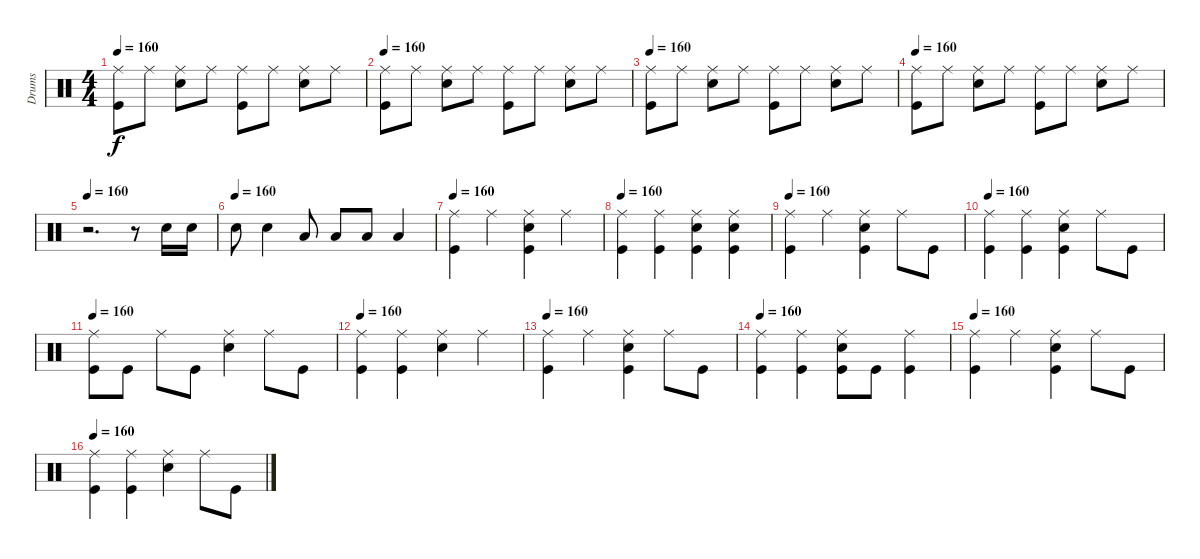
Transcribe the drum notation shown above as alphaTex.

\track ("Drums" "Drums") {instrument percussion}
\staff {score}
\articulation defaults
\ts (4 4)
\tempo 160
\clef neutral
\ks c
("Ride (middle)" "Kick (hit)").8{dy f} "Ride (middle)".8 ("Ride (middle)" "Snare (hit) 2").8 "Ride (middle)".8 ("Ride (middle)" "Kick (hit)").8 "Ride (middle)".8 ("Ride (middle)" "Snare (hit) 2").8 "Ride (middle)".8 |
\tempo 160
("Ride (middle)" "Kick (hit)").8 "Ride (middle)".8 ("Ride (middle)" "Snare (hit) 2").8 "Ride (middle)".8 ("Ride (middle)" "Kick (hit)").8 "Ride (middle)".8 ("Ride (middle)" "Snare (hit) 2").8 "Ride (middle)".8 |
\tempo 160
("Ride (middle)" "Kick (hit)").8 "Ride (middle)".8 ("Ride (middle)" "Snare (hit) 2").8 "Ride (middle)".8 ("Ride (middle)" "Kick (hit)").8 "Ride (middle)".8 ("Ride (middle)" "Snare (hit) 2").8 "Ride (middle)".8 |
\tempo 160
("Ride (middle)" "Kick (hit)").8 "Ride (middle)".8 ("Ride (middle)" "Snare (hit) 2").8 "Ride (middle)".8 ("Ride (middle)" "Kick (hit)").8 "Ride (middle)".8 ("Ride (middle)" "Snare (hit) 2").8 "Ride (middle)".8 |
\tempo 160
r.2{d} r.8 "Snare (hit) 2".16 "Snare (hit) 2".16 |
\tempo (160)
"Snare (hit) 2".8 "Snare (hit) 2".4 "Low Tom (hit)".8 "Low Tom (hit)".8 "Low Tom (hit)".8 "Low Tom (hit)".4 |
\tempo 160
("Ride (middle)" "Kick (hit)").4 "Ride (middle)".4 ("Ride (middle)" "Snare (hit) 2" "Kick (hit)").4 "Ride (middle)".4 |
\tempo 160
("Kick (hit)" "Ride (middle)").4 ("Kick (hit)" "Ride (middle)").4 ("Snare (hit) 2" "Kick (hit)" "Ride (middle)").4 ("Snare (hit) 2" "Kick (hit)" "Ride (middle)").4 |
\tempo 160
("Ride (middle)" "Kick (hit)").4 "Ride (middle)".4 ("Snare (hit) 2" "Kick (hit)" "Ride (middle)").4 "Ride (middle)".8 "Kick (hit)".8 |
\tempo 160
("Ride (middle)" "Kick (hit)").4 ("Ride (middle)" "Kick (hit)").4 ("Ride (middle)" "Snare (hit) 2" "Kick (hit)").4 "Ride (middle)".8 "Kick (hit)".8 |
\tempo 160
("Ride (middle)" "Kick (hit)").8 "Kick (hit)".8 "Ride (middle)".8 "Kick (hit)".8 ("Ride (middle)" "Snare (hit) 2").4 "Ride (middle)".8 "Kick (hit)".8 |
\tempo 160
("Kick (hit)" "Ride (middle)").4 ("Kick (hit)" "Ride (middle)").4 ("Snare (hit) 2" "Ride (middle)").4 "Ride (middle)".4 |
\tempo 160
("Ride (middle)" "Kick (hit)").4 "Ride (middle)".4 ("Ride (middle)" "Snare (hit) 2" "Kick (hit)").4 "Ride (middle)".8 "Kick (hit)".8 |
\tempo 160
("Kick (hit)" "Ride (middle)").4 ("Kick (hit)" "Ride (middle)").4 ("Snare (hit) 2" "Kick (hit)" "Ride (middle)").8 "Kick (hit)".8 ("Kick (hit)" "Ride (middle)").4 |
\tempo 160
("Kick (hit)" "Ride (middle)").4 "Ride (middle)".4 ("Snare (hit) 2" "Kick (hit)" "Ride (middle)").4 "Ride (middle)".8 "Kick (hit)".8 |
\tempo 160
("Ride (middle)" "Kick (hit)").4 ("Ride (middle)" "Kick (hit)").4 ("Ride (middle)" "Snare (hit) 2").4 "Ride (middle)".8 "Kick (hit)".8
